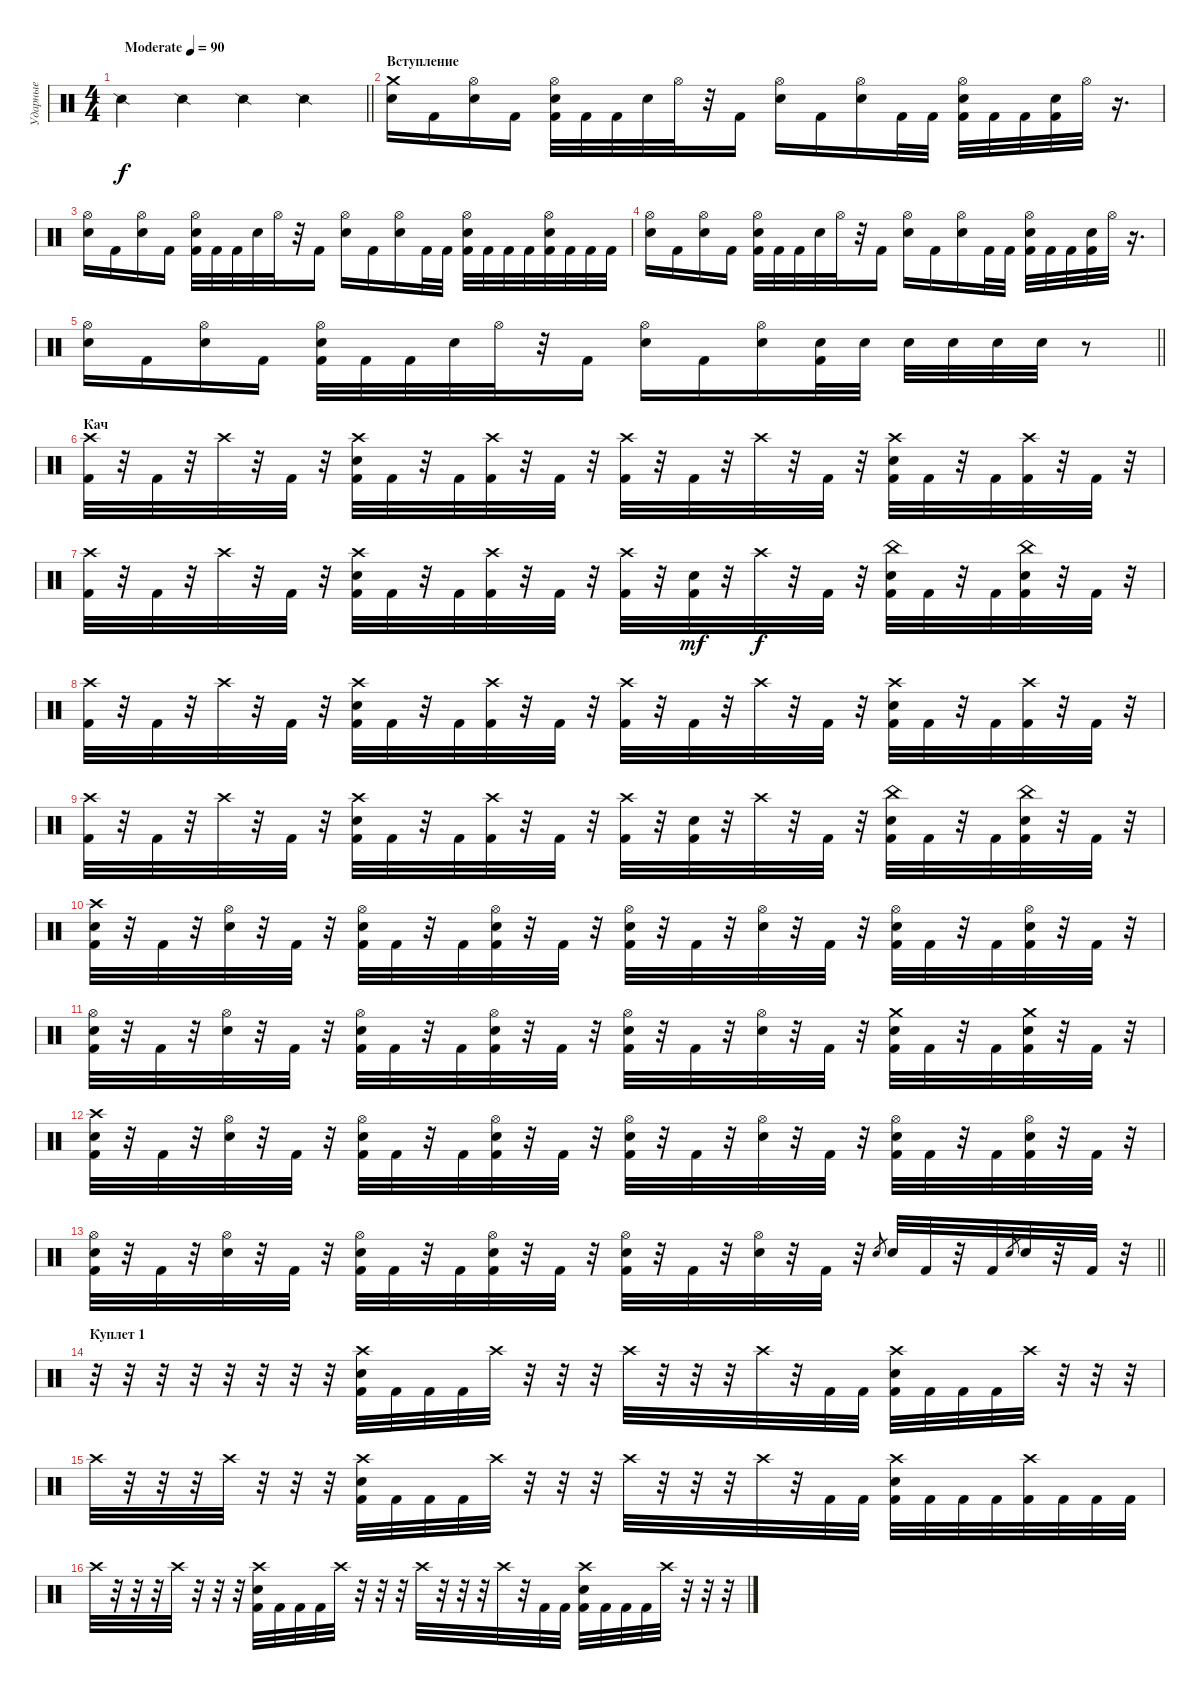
\track ("Ударные" "Ударные") {instrument percussion}
\staff {score}
\articulation defaults
\ts (4 4)
\tempo (90 "Moderate")
\clef neutral
\barLineRight lightlight
\ks c "Snare (side stick) 2".4{dy f} "Snare (side stick) 2".4 "Snare (side stick) 2".4 "Snare (side stick) 2".4
|
\section ("" "Вступление")
("Crash medium (hit)" "Electric Snare (hit)").16 "Kick (hit) 2".16 ("Hi-Hat (open)" "Electric Snare (hit)").16 "Kick (hit) 2".16 ("Hi-Hat (open)" "Electric Snare (hit)" "Kick (hit) 2").32 "Kick (hit) 2".32 "Kick (hit) 2".32 "Electric Snare (hit)".32 "Hi-Hat (open)".32 r.32 "Kick (hit) 2".16 ("Hi-Hat (open)" "Electric Snare (hit)").16 "Kick (hit) 2".16 ("Hi-Hat (open)" "Electric Snare (hit)").16 "Kick (hit) 2".32 "Kick (hit) 2".32 ("Hi-Hat (open)" "Electric Snare (hit)" "Kick (hit) 2").32 "Kick (hit) 2".32 "Kick (hit) 2".32 ("Electric Snare (hit)" "Kick (hit) 2").32 "Hi-Hat (open)".32 r.16{d} |
("Hi-Hat (open)" "Electric Snare (hit)").16 "Kick (hit) 2".16 ("Hi-Hat (open)" "Electric Snare (hit)").16 "Kick (hit) 2".16 ("Hi-Hat (open)" "Electric Snare (hit)" "Kick (hit) 2").32 "Kick (hit) 2".32 "Kick (hit) 2".32 "Electric Snare (hit)".32 "Hi-Hat (open)".32 r.32 "Kick (hit) 2".16 ("Hi-Hat (open)" "Electric Snare (hit)").16 "Kick (hit) 2".16 ("Hi-Hat (open)" "Electric Snare (hit)").16 "Kick (hit) 2".32 "Kick (hit) 2".32 ("Hi-Hat (open)" "Electric Snare (hit)" "Kick (hit) 2").32 "Kick (hit) 2".32 "Kick (hit) 2".32 "Kick (hit) 2".32 ("Hi-Hat (open)" "Electric Snare (hit)" "Kick (hit) 2").32 "Kick (hit) 2".32 "Kick (hit) 2".32 "Kick (hit) 2".32 |
("Hi-Hat (open)" "Electric Snare (hit)").16 "Kick (hit) 2".16 ("Hi-Hat (open)" "Electric Snare (hit)").16 "Kick (hit) 2".16 ("Hi-Hat (open)" "Electric Snare (hit)" "Kick (hit) 2").32 "Kick (hit) 2".32 "Kick (hit) 2".32 "Electric Snare (hit)".32 "Hi-Hat (open)".32 r.32 "Kick (hit) 2".16 ("Hi-Hat (open)" "Electric Snare (hit)").16 "Kick (hit) 2".16 ("Hi-Hat (open)" "Electric Snare (hit)").16 "Kick (hit) 2".32 "Kick (hit) 2".32 ("Hi-Hat (open)" "Electric Snare (hit)" "Kick (hit) 2").32 "Kick (hit) 2".32 "Kick (hit) 2".32 ("Electric Snare (hit)" "Kick (hit) 2").32 "Hi-Hat (open)".32 r.16{d} |
\barLineRight lightlight
("Hi-Hat (open)" "Electric Snare (hit)").16 "Kick (hit) 2".16 ("Hi-Hat (open)" "Electric Snare (hit)").16 "Kick (hit) 2".16 ("Hi-Hat (open)" "Electric Snare (hit)" "Kick (hit) 2").32 "Kick (hit) 2".32 "Kick (hit) 2".32 "Electric Snare (hit)".32 "Hi-Hat (open)".32 r.32 "Kick (hit) 2".16 ("Hi-Hat (open)" "Electric Snare (hit)").16 "Kick (hit) 2".16 ("Hi-Hat (open)" "Electric Snare (hit)").16 ("Electric Snare (hit)" "Kick (hit) 2").32 "Electric Snare (hit)".32 "Electric Snare (hit)".32 "Electric Snare (hit)".32 "Electric Snare (hit)".32 "Electric Snare (hit)".32 r.8 |
\section ("" "Кач")
("Crash high (hit)" "Kick (hit) 2").32 r.32 "Kick (hit) 2".32 r.32 "Crash high (hit)".32 r.32 "Kick (hit) 2".32 r.32 ("Crash high (hit)" "Electric Snare (hit)" "Kick (hit) 2").32 "Kick (hit) 2".32 r.32 "Kick (hit) 2".32 ("Crash high (hit)" "Kick (hit) 2").32 r.32 "Kick (hit) 2".32 r.32 ("Crash high (hit)" "Kick (hit) 2").32 r.32 "Kick (hit) 2".32 r.32 "Crash high (hit)".32 r.32 "Kick (hit) 2".32 r.32 ("Crash high (hit)" "Electric Snare (hit)" "Kick (hit) 2").32 "Kick (hit) 2".32 r.32 "Kick (hit) 2".32 ("Crash high (hit)" "Kick (hit) 2").32 r.32 "Kick (hit) 2".32 r.32 |
("Crash high (hit)" "Kick (hit) 2").32 r.32 "Kick (hit) 2".32 r.32 "Crash high (hit)".32 r.32 "Kick (hit) 2".32 r.32 ("Crash high (hit)" "Electric Snare (hit)" "Kick (hit) 2").32 "Kick (hit) 2".32 r.32 "Kick (hit) 2".32 ("Crash high (hit)" "Kick (hit) 2").32 r.32 "Kick (hit) 2".32 r.32 ("Crash high (hit)" "Kick (hit) 2").32 r.32 ("Electric Snare (hit)" "Kick (hit) 2").32{dy mf} r.32 "Crash high (hit)".32{dy f} r.32 "Kick (hit) 2".32 r.32 ("China (hit)" "Electric Snare (hit)" "Kick (hit) 2").32 "Kick (hit) 2".32 r.32 "Kick (hit) 2".32 ("China (hit)" "Electric Snare (hit)" "Kick (hit) 2").32 r.32 "Kick (hit) 2".32 r.32 |
("Crash high (hit)" "Kick (hit) 2").32 r.32 "Kick (hit) 2".32 r.32 "Crash high (hit)".32 r.32 "Kick (hit) 2".32 r.32 ("Crash high (hit)" "Electric Snare (hit)" "Kick (hit) 2").32 "Kick (hit) 2".32 r.32 "Kick (hit) 2".32 ("Crash high (hit)" "Kick (hit) 2").32 r.32 "Kick (hit) 2".32 r.32 ("Crash high (hit)" "Kick (hit) 2").32 r.32 "Kick (hit) 2".32 r.32 "Crash high (hit)".32 r.32 "Kick (hit) 2".32 r.32 ("Crash high (hit)" "Electric Snare (hit)" "Kick (hit) 2").32 "Kick (hit) 2".32 r.32 "Kick (hit) 2".32 ("Crash high (hit)" "Kick (hit) 2").32 r.32 "Kick (hit) 2".32 r.32 |
("Crash high (hit)" "Kick (hit) 2").32 r.32 "Kick (hit) 2".32 r.32 "Crash high (hit)".32 r.32 "Kick (hit) 2".32 r.32 ("Crash high (hit)" "Electric Snare (hit)" "Kick (hit) 2").32 "Kick (hit) 2".32 r.32 "Kick (hit) 2".32 ("Crash high (hit)" "Kick (hit) 2").32 r.32 "Kick (hit) 2".32 r.32 ("Crash high (hit)" "Kick (hit) 2").32 r.32 ("Electric Snare (hit)" "Kick (hit) 2").32 r.32 "Crash high (hit)".32 r.32 "Kick (hit) 2".32 r.32 ("China (hit)" "Electric Snare (hit)" "Kick (hit) 2").32 "Kick (hit) 2".32 r.32 "Kick (hit) 2".32 ("China (hit)" "Electric Snare (hit)" "Kick (hit) 2").32 r.32 "Kick (hit) 2".32 r.32 |
("Crash high (hit)" "Electric Snare (hit)" "Kick (hit) 2").32 r.32 "Kick (hit) 2".32 r.32 ("Hi-Hat (open)" "Electric Snare (hit)").32 r.32 "Kick (hit) 2".32 r.32 ("Hi-Hat (open)" "Electric Snare (hit)" "Kick (hit) 2").32 "Kick (hit) 2".32 r.32 "Kick (hit) 2".32 ("Hi-Hat (open)" "Electric Snare (hit)" "Kick (hit) 2").32 r.32 "Kick (hit) 2".32 r.32 ("Hi-Hat (open)" "Electric Snare (hit)" "Kick (hit) 2").32 r.32 "Kick (hit) 2".32 r.32 ("Hi-Hat (open)" "Electric Snare (hit)").32 r.32 "Kick (hit) 2".32 r.32 ("Hi-Hat (open)" "Electric Snare (hit)" "Kick (hit) 2").32 "Kick (hit) 2".32 r.32 "Kick (hit) 2".32 ("Hi-Hat (open)" "Electric Snare (hit)" "Kick (hit) 2").32 r.32 "Kick (hit) 2".32 r.32 |
("Hi-Hat (open)" "Electric Snare (hit)" "Kick (hit) 2").32 r.32 "Kick (hit) 2".32 r.32 ("Hi-Hat (open)" "Electric Snare (hit)").32 r.32 "Kick (hit) 2".32 r.32 ("Hi-Hat (open)" "Electric Snare (hit)" "Kick (hit) 2").32 "Kick (hit) 2".32 r.32 "Kick (hit) 2".32 ("Hi-Hat (open)" "Electric Snare (hit)" "Kick (hit) 2").32 r.32 "Kick (hit) 2".32 r.32 ("Hi-Hat (open)" "Electric Snare (hit)" "Kick (hit) 2").32 r.32 "Kick (hit) 2".32 r.32 ("Hi-Hat (open)" "Electric Snare (hit)").32 r.32 "Kick (hit) 2".32 r.32 ("Crash medium (hit)" "Electric Snare (hit)" "Kick (hit) 2").32 "Kick (hit) 2".32 r.32 "Kick (hit) 2".32 ("Crash medium (hit)" "Electric Snare (hit)" "Kick (hit) 2").32 r.32 "Kick (hit) 2".32 r.32 |
("Crash high (hit)" "Electric Snare (hit)" "Kick (hit) 2").32 r.32 "Kick (hit) 2".32 r.32 ("Hi-Hat (open)" "Electric Snare (hit)").32 r.32 "Kick (hit) 2".32 r.32 ("Hi-Hat (open)" "Electric Snare (hit)" "Kick (hit) 2").32 "Kick (hit) 2".32 r.32 "Kick (hit) 2".32 ("Hi-Hat (open)" "Electric Snare (hit)" "Kick (hit) 2").32 r.32 "Kick (hit) 2".32 r.32 ("Hi-Hat (open)" "Electric Snare (hit)" "Kick (hit) 2").32 r.32 "Kick (hit) 2".32 r.32 ("Hi-Hat (open)" "Electric Snare (hit)").32 r.32 "Kick (hit) 2".32 r.32 ("Hi-Hat (open)" "Electric Snare (hit)" "Kick (hit) 2").32 "Kick (hit) 2".32 r.32 "Kick (hit) 2".32 ("Hi-Hat (open)" "Electric Snare (hit)" "Kick (hit) 2").32 r.32 "Kick (hit) 2".32 r.32 |
\barLineRight lightlight
("Hi-Hat (open)" "Electric Snare (hit)" "Kick (hit) 2").32 r.32 "Kick (hit) 2".32 r.32 ("Hi-Hat (open)" "Electric Snare (hit)").32 r.32 "Kick (hit) 2".32 r.32 ("Hi-Hat (open)" "Electric Snare (hit)" "Kick (hit) 2").32 "Kick (hit) 2".32 r.32 "Kick (hit) 2".32 ("Hi-Hat (open)" "Electric Snare (hit)" "Kick (hit) 2").32 r.32 "Kick (hit) 2".32 r.32 ("Hi-Hat (open)" "Electric Snare (hit)" "Kick (hit) 2").32 r.32 "Kick (hit) 2".32 r.32 ("Hi-Hat (open)" "Electric Snare (hit)").32 r.32 "Kick (hit) 2".32 r.32 "Electric Snare (hit)".8{gr} "Electric Snare (hit)".32 "Kick (hit) 2".32 r.32 "Kick (hit) 2".32 "Electric Snare (hit)".8{gr} "Electric Snare (hit)".32 r.32 "Kick (hit) 2".32 r.32 |
\section ("" "Куплет 1")
r.32 r.32 r.32 r.32 r.32 r.32 r.32 r.32 ("Crash high (hit)" "Electric Snare (hit)" "Kick (hit) 2").32 "Kick (hit) 2".32 "Kick (hit) 2".32 "Kick (hit) 2".32 "Crash high (hit)".32 r.32 r.32 r.32 "Crash high (hit)".32 r.32 r.32 r.32 "Crash high (hit)".32 r.32 "Kick (hit) 2".32 "Kick (hit) 2".32 ("Crash high (hit)" "Electric Snare (hit)" "Kick (hit) 2").32 "Kick (hit) 2".32 "Kick (hit) 2".32 "Kick (hit) 2".32 "Crash high (hit)".32 r.32 r.32 r.32 |
"Crash high (hit)".32 r.32 r.32 r.32 "Crash high (hit)".32 r.32 r.32 r.32 ("Crash high (hit)" "Electric Snare (hit)" "Kick (hit) 2").32 "Kick (hit) 2".32 "Kick (hit) 2".32 "Kick (hit) 2".32 "Crash high (hit)".32 r.32 r.32 r.32 "Crash high (hit)".32 r.32 r.32 r.32 "Crash high (hit)".32 r.32 "Kick (hit) 2".32 "Kick (hit) 2".32 ("Crash high (hit)" "Electric Snare (hit)" "Kick (hit) 2").32 "Kick (hit) 2".32 "Kick (hit) 2".32 "Kick (hit) 2".32 ("Crash high (hit)" "Kick (hit) 2").32 "Kick (hit) 2".32 "Kick (hit) 2".32 "Kick (hit) 2".32 |
"Crash high (hit)".32 r.32 r.32 r.32 "Crash high (hit)".32 r.32 r.32 r.32 ("Crash high (hit)" "Electric Snare (hit)" "Kick (hit) 2").32 "Kick (hit) 2".32 "Kick (hit) 2".32 "Kick (hit) 2".32 "Crash high (hit)".32 r.32 r.32 r.32 "Crash high (hit)".32 r.32 r.32 r.32 "Crash high (hit)".32 r.32 "Kick (hit) 2".32 "Kick (hit) 2".32 ("Crash high (hit)" "Electric Snare (hit)" "Kick (hit) 2").32 "Kick (hit) 2".32 "Kick (hit) 2".32 "Kick (hit) 2".32 "Crash high (hit)".32 r.32 r.32 r.32
